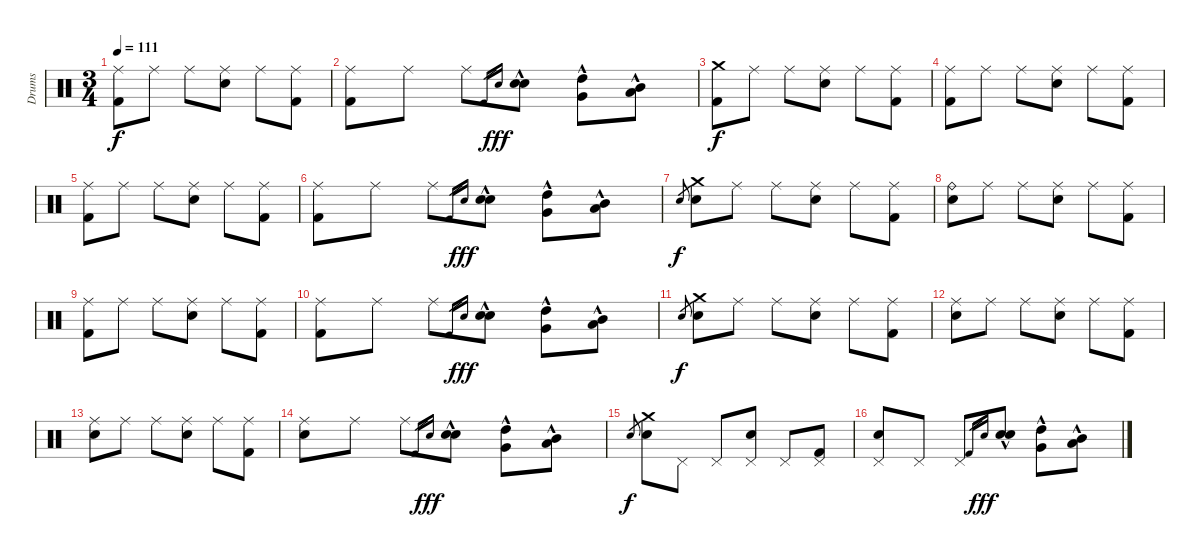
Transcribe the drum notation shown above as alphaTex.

\track ("Drums" "Drums") {instrument percussion}
\staff {score}
\articulation defaults
\ts (3 4)
\tempo 111
\clef neutral
\ks c
("Ride (middle)" "Kick (hit) 2").8{dy f} "Ride (middle)".8 "Ride (middle)".8 ("Ride (middle)" "Snare (hit) 2").8 "Ride (middle)".8 ("Ride (middle)" "Kick (hit) 2").8 |
("Ride (middle)" "Kick (hit) 2").8 "Ride (middle)".8 "Ride (middle)".8 "Kick (hit) 2".16{gr} "Snare (hit) 2".16{gr dy fff} ("Snare (hit) 2"{hac} "Electric Snare (hit)"{hac}).8 ("High Tom (hit)"{hac} "Very Low Tom (hit)"{hac}).8 ("Mid Tom (hit)"{hac} "Low Floor Tom (hit)"{hac}).8 |
("Crash medium (hit)" "Kick (hit) 2").8{dy f} "Ride (middle)".8 "Ride (middle)".8 ("Ride (middle)" "Snare (hit) 2").8 "Ride (middle)".8 ("Ride (middle)" "Kick (hit) 2").8 |
("Ride (middle)" "Kick (hit) 2").8 "Ride (middle)".8 "Ride (middle)".8 ("Ride (middle)" "Snare (hit) 2").8 "Ride (middle)".8 ("Ride (middle)" "Kick (hit) 2").8 |
("Ride (middle)" "Kick (hit) 2").8 "Ride (middle)".8 "Ride (middle)".8 ("Ride (middle)" "Snare (hit) 2").8 "Ride (middle)".8 ("Ride (middle)" "Kick (hit) 2").8 |
("Ride (middle)" "Kick (hit) 2").8 "Ride (middle)".8 "Ride (middle)".8 "Kick (hit) 2".16{gr} "Snare (hit) 2".16{gr dy fff} ("Snare (hit) 2"{hac} "Electric Snare (hit)"{hac}).8 ("High Tom (hit)"{hac} "Very Low Tom (hit)"{hac}).8 ("Mid Tom (hit)"{hac} "Low Floor Tom (hit)"{hac}).8 |
"Electric Snare (hit)".8{gr dy f} ("Crash medium (hit)" "Snare (hit) 2").8 "Ride (middle)".8 "Ride (middle)".8 ("Ride (middle)" "Snare (hit) 2").8 "Ride (middle)".8 ("Ride (middle)" "Kick (hit) 2").8 |
("Ride (bell)" "Snare (hit) 2").8 "Ride (middle)".8 "Ride (middle)".8 ("Ride (middle)" "Snare (hit) 2").8 "Ride (middle)".8 ("Ride (middle)" "Kick (hit) 2").8 |
("Ride (middle)" "Kick (hit) 2").8 "Ride (middle)".8 "Ride (middle)".8 ("Ride (middle)" "Snare (hit) 2").8 "Ride (middle)".8 ("Ride (middle)" "Kick (hit) 2").8 |
("Ride (middle)" "Kick (hit) 2").8 "Ride (middle)".8 "Ride (middle)".8 "Kick (hit) 2".16{gr} "Snare (hit) 2".16{gr dy fff} ("Snare (hit) 2"{hac} "Electric Snare (hit)"{hac}).8 ("High Tom (hit)"{hac} "Very Low Tom (hit)"{hac}).8 ("Mid Tom (hit)"{hac} "Low Floor Tom (hit)"{hac}).8 |
"Electric Snare (hit)".8{gr dy f} ("Crash medium (hit)" "Snare (hit) 2").8 "Ride (middle)".8 "Ride (middle)".8 ("Ride (middle)" "Snare (hit) 2").8 "Ride (middle)".8 ("Ride (middle)" "Kick (hit) 2").8 |
("Ride (middle)" "Snare (hit) 2").8 "Ride (middle)".8 "Ride (middle)".8 ("Ride (middle)" "Snare (hit) 2").8 "Ride (middle)".8 ("Ride (middle)" "Kick (hit) 2").8 |
("Ride (middle)" "Snare (hit) 2").8 "Ride (middle)".8 "Ride (middle)".8 ("Ride (middle)" "Snare (hit) 2").8 "Ride (middle)".8 ("Ride (middle)" "Kick (hit) 2").8 |
("Ride (middle)" "Snare (hit) 2").8 "Ride (middle)".8 "Ride (middle)".8 "Kick (hit) 2".16{gr} "Snare (hit) 2".16{gr dy fff} ("Snare (hit) 2"{hac} "Electric Snare (hit)"{hac}).8 ("High Tom (hit)"{hac} "Very Low Tom (hit)"{hac}).8 ("Mid Tom (hit)"{hac} "Low Floor Tom (hit)"{hac}).8 |
"Electric Snare (hit)".8{gr dy f} ("Crash medium (hit)" "Snare (hit) 2").8 "Pedal Hi-Hat (hit)".8 "Pedal Hi-Hat (hit)".8 ("Pedal Hi-Hat (hit)" "Snare (hit) 2").8 "Pedal Hi-Hat (hit)".8 ("Pedal Hi-Hat (hit)" "Kick (hit) 2").8 |
("Pedal Hi-Hat (hit)" "Snare (hit) 2").8 "Pedal Hi-Hat (hit)".8 "Pedal Hi-Hat (hit)".8 "Kick (hit) 2".16{gr} "Snare (hit) 2".16{gr dy fff} ("Snare (hit) 2"{hac} "Electric Snare (hit)"{hac}).8 ("High Tom (hit)"{hac} "Very Low Tom (hit)"{hac}).8 ("Mid Tom (hit)"{hac} "Low Floor Tom (hit)"{hac}).8
